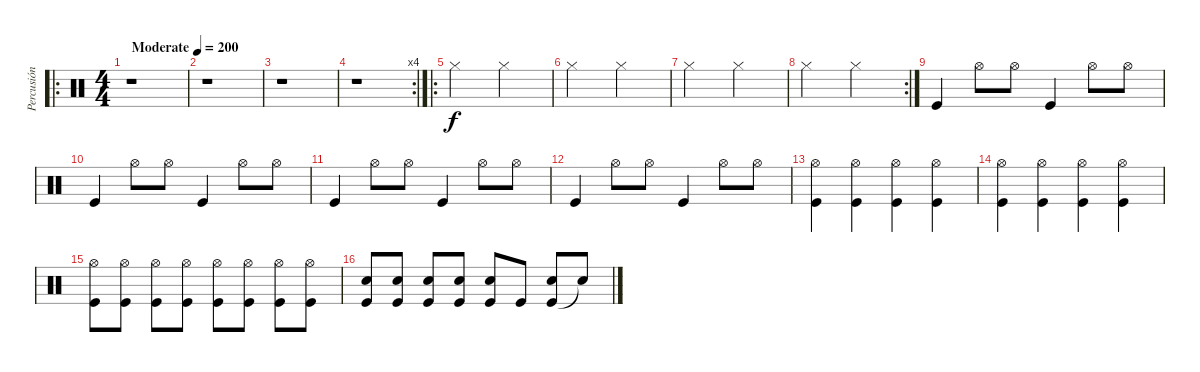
\track ("Percusión" "Percusión") {instrument percussion}
\staff {score}
\articulation defaults
\ro
\ts (4 4)
\tempo (200 "Moderate")
\clef neutral
\ks c
r.1{dy f} |
r.1 |
r.1 |
\rc 4
r.1 |
\ro "Hi-Hat (closed)".2 "Hi-Hat (closed)".2
|
"Hi-Hat (closed)".2 "Hi-Hat (closed)".2 |
"Hi-Hat (closed)".2 "Hi-Hat (closed)".2 |
\rc 2 "Hi-Hat (closed)".2 "Hi-Hat (closed)".2
|
"Kick (hit)".4 "Hi-Hat (open)".8 "Hi-Hat (open)".8 "Kick (hit)".4 "Hi-Hat (open)".8 "Hi-Hat (open)".8 |
"Kick (hit)".4 "Hi-Hat (open)".8 "Hi-Hat (open)".8 "Kick (hit)".4 "Hi-Hat (open)".8 "Hi-Hat (open)".8 |
"Kick (hit)".4 "Hi-Hat (open)".8 "Hi-Hat (open)".8 "Kick (hit)".4 "Hi-Hat (open)".8 "Hi-Hat (open)".8 |
"Kick (hit)".4 "Hi-Hat (open)".8 "Hi-Hat (open)".8 "Kick (hit)".4 "Hi-Hat (open)".8 "Hi-Hat (open)".8 |
("Kick (hit)" "Hi-Hat (open)").4 ("Kick (hit)" "Hi-Hat (open)").4 ("Kick (hit)" "Hi-Hat (open)").4 ("Kick (hit)" "Hi-Hat (open)").4 |
("Kick (hit)" "Hi-Hat (open)").4 ("Kick (hit)" "Hi-Hat (open)").4 ("Kick (hit)" "Hi-Hat (open)").4 ("Kick (hit)" "Hi-Hat (open)").4 |
("Kick (hit)" "Hi-Hat (open)").8 ("Kick (hit)" "Hi-Hat (open)").8 ("Kick (hit)" "Hi-Hat (open)").8 ("Kick (hit)" "Hi-Hat (open)").8 ("Kick (hit)" "Hi-Hat (open)").8 ("Kick (hit)" "Hi-Hat (open)").8 ("Kick (hit)" "Hi-Hat (open)").8 ("Kick (hit)" "Hi-Hat (open)").8 |
("Kick (hit)" "Snare (hit) 2").8 ("Kick (hit)" "Snare (hit) 2").8 ("Kick (hit)" "Snare (hit) 2").8 ("Kick (hit)" "Snare (hit) 2").8 ("Kick (hit)" "Snare (hit) 2").8 "Kick (hit)".8 ("Kick (hit)" "Snare (hit) 2").8 "Snare (hit)"{t}.8
